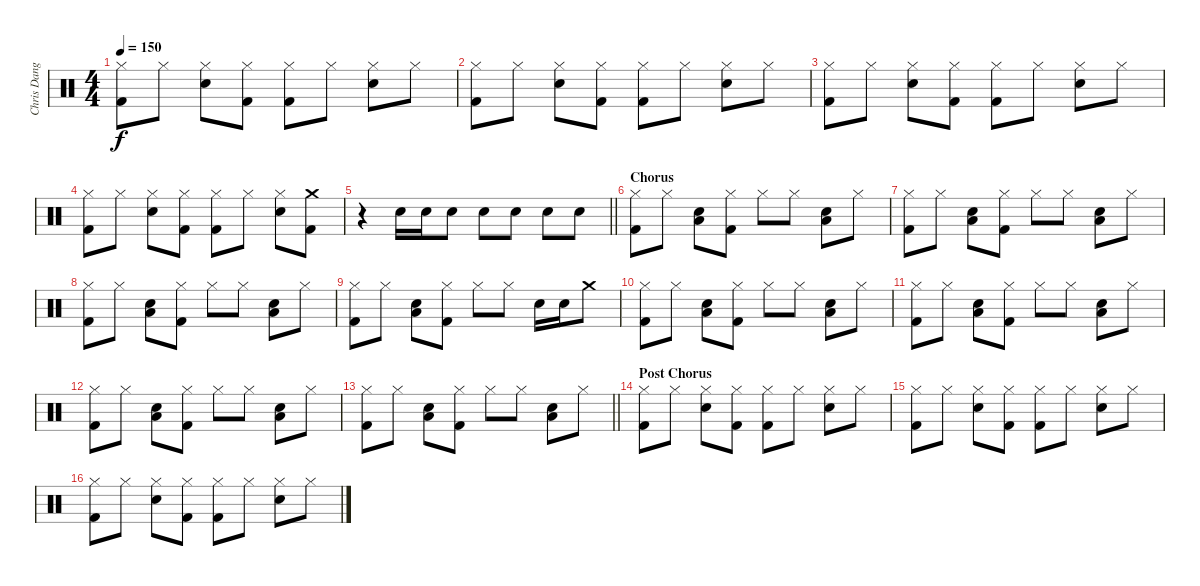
\track ("Chris Dangerous" "Chris Dang") {instrument percussion}
\staff {score}
\articulation defaults
\ts (4 4)
\tempo 150
\clef neutral
\ks c
("Hi-Hat (closed)" "Kick (hit) 2").8{dy f} "Hi-Hat (closed)".8 ("Hi-Hat (closed)" "Snare (hit) 2").8 ("Hi-Hat (closed)" "Kick (hit) 2").8 ("Hi-Hat (closed)" "Kick (hit) 2").8 "Hi-Hat (closed)".8 ("Hi-Hat (closed)" "Snare (hit) 2").8 "Hi-Hat (closed)".8 |
("Hi-Hat (closed)" "Kick (hit) 2").8 "Hi-Hat (closed)".8 ("Hi-Hat (closed)" "Snare (hit) 2").8 ("Hi-Hat (closed)" "Kick (hit) 2").8 ("Hi-Hat (closed)" "Kick (hit) 2").8 "Hi-Hat (closed)".8 ("Hi-Hat (closed)" "Snare (hit) 2").8 "Hi-Hat (closed)".8 |
("Hi-Hat (closed)" "Kick (hit) 2").8 "Hi-Hat (closed)".8 ("Hi-Hat (closed)" "Snare (hit) 2").8 ("Hi-Hat (closed)" "Kick (hit) 2").8 ("Hi-Hat (closed)" "Kick (hit) 2").8 "Hi-Hat (closed)".8 ("Hi-Hat (closed)" "Snare (hit) 2").8 "Hi-Hat (closed)".8 |
("Hi-Hat (closed)" "Kick (hit) 2").8 "Hi-Hat (closed)".8 ("Hi-Hat (closed)" "Snare (hit) 2").8 ("Hi-Hat (closed)" "Kick (hit) 2").8 ("Hi-Hat (closed)" "Kick (hit) 2").8 "Hi-Hat (closed)".8 ("Hi-Hat (closed)" "Snare (hit) 2").8 ("Crash medium (hit)" "Kick (hit) 2").8 |
\barLineRight lightlight
r.4 "Snare (hit) 2".16 "Snare (hit) 2".16 "Snare (hit) 2".8 "Snare (hit) 2".8 "Snare (hit) 2".8 "Snare (hit) 2".8 "Snare (hit) 2".8 |
\section ("" "Chorus")
("Hi-Hat (closed)" "Kick (hit) 2").8 "Hi-Hat (closed)".8 ("Low Floor Tom (hit)" "Snare (hit) 2").8 ("Hi-Hat (closed)" "Kick (hit) 2").8 "Hi-Hat (closed)".8 "Hi-Hat (closed)".8 ("Low Floor Tom (hit)" "Snare (hit) 2").8 "Hi-Hat (closed)".8 |
("Hi-Hat (closed)" "Kick (hit) 2").8 "Hi-Hat (closed)".8 ("Low Floor Tom (hit)" "Snare (hit) 2").8 ("Hi-Hat (closed)" "Kick (hit) 2").8 "Hi-Hat (closed)".8 "Hi-Hat (closed)".8 ("Low Floor Tom (hit)" "Snare (hit) 2").8 "Hi-Hat (closed)".8 |
("Hi-Hat (closed)" "Kick (hit) 2").8 "Hi-Hat (closed)".8 ("Low Floor Tom (hit)" "Snare (hit) 2").8 ("Hi-Hat (closed)" "Kick (hit) 2").8 "Hi-Hat (closed)".8 "Hi-Hat (closed)".8 ("Low Floor Tom (hit)" "Snare (hit) 2").8 "Hi-Hat (closed)".8 |
("Hi-Hat (closed)" "Kick (hit) 2").8 "Hi-Hat (closed)".8 ("Low Floor Tom (hit)" "Snare (hit) 2").8 ("Hi-Hat (closed)" "Kick (hit) 2").8 "Hi-Hat (closed)".8 "Hi-Hat (closed)".8 "Snare (hit) 2".16 "Snare (hit) 2".16 "Crash medium (hit)".8 |
("Hi-Hat (closed)" "Kick (hit) 2").8 "Hi-Hat (closed)".8 ("Low Floor Tom (hit)" "Snare (hit) 2").8 ("Hi-Hat (closed)" "Kick (hit) 2").8 "Hi-Hat (closed)".8 "Hi-Hat (closed)".8 ("Low Floor Tom (hit)" "Snare (hit) 2").8 "Hi-Hat (closed)".8 |
("Hi-Hat (closed)" "Kick (hit) 2").8 "Hi-Hat (closed)".8 ("Low Floor Tom (hit)" "Snare (hit) 2").8 ("Hi-Hat (closed)" "Kick (hit) 2").8 "Hi-Hat (closed)".8 "Hi-Hat (closed)".8 ("Low Floor Tom (hit)" "Snare (hit) 2").8 "Hi-Hat (closed)".8 |
("Hi-Hat (closed)" "Kick (hit) 2").8 "Hi-Hat (closed)".8 ("Low Floor Tom (hit)" "Snare (hit) 2").8 ("Hi-Hat (closed)" "Kick (hit) 2").8 "Hi-Hat (closed)".8 "Hi-Hat (closed)".8 ("Low Floor Tom (hit)" "Snare (hit) 2").8 "Hi-Hat (closed)".8 |
\barLineRight lightlight
("Hi-Hat (closed)" "Kick (hit) 2").8 "Hi-Hat (closed)".8 ("Low Floor Tom (hit)" "Snare (hit) 2").8 ("Hi-Hat (closed)" "Kick (hit) 2").8 "Hi-Hat (closed)".8 "Hi-Hat (closed)".8 ("Low Floor Tom (hit)" "Snare (hit) 2").8 "Hi-Hat (closed)".8 |
\section ("" "Post Chorus")
("Hi-Hat (closed)" "Kick (hit) 2").8 "Hi-Hat (closed)".8 ("Hi-Hat (closed)" "Snare (hit) 2").8 ("Hi-Hat (closed)" "Kick (hit) 2").8 ("Hi-Hat (closed)" "Kick (hit) 2").8 "Hi-Hat (closed)".8 ("Hi-Hat (closed)" "Snare (hit) 2").8 "Hi-Hat (closed)".8 |
("Hi-Hat (closed)" "Kick (hit) 2").8 "Hi-Hat (closed)".8 ("Hi-Hat (closed)" "Snare (hit) 2").8 ("Hi-Hat (closed)" "Kick (hit) 2").8 ("Hi-Hat (closed)" "Kick (hit) 2").8 "Hi-Hat (closed)".8 ("Hi-Hat (closed)" "Snare (hit) 2").8 "Hi-Hat (closed)".8 |
("Hi-Hat (closed)" "Kick (hit) 2").8 "Hi-Hat (closed)".8 ("Hi-Hat (closed)" "Snare (hit) 2").8 ("Hi-Hat (closed)" "Kick (hit) 2").8 ("Hi-Hat (closed)" "Kick (hit) 2").8 "Hi-Hat (closed)".8 ("Hi-Hat (closed)" "Snare (hit) 2").8 "Hi-Hat (closed)".8
